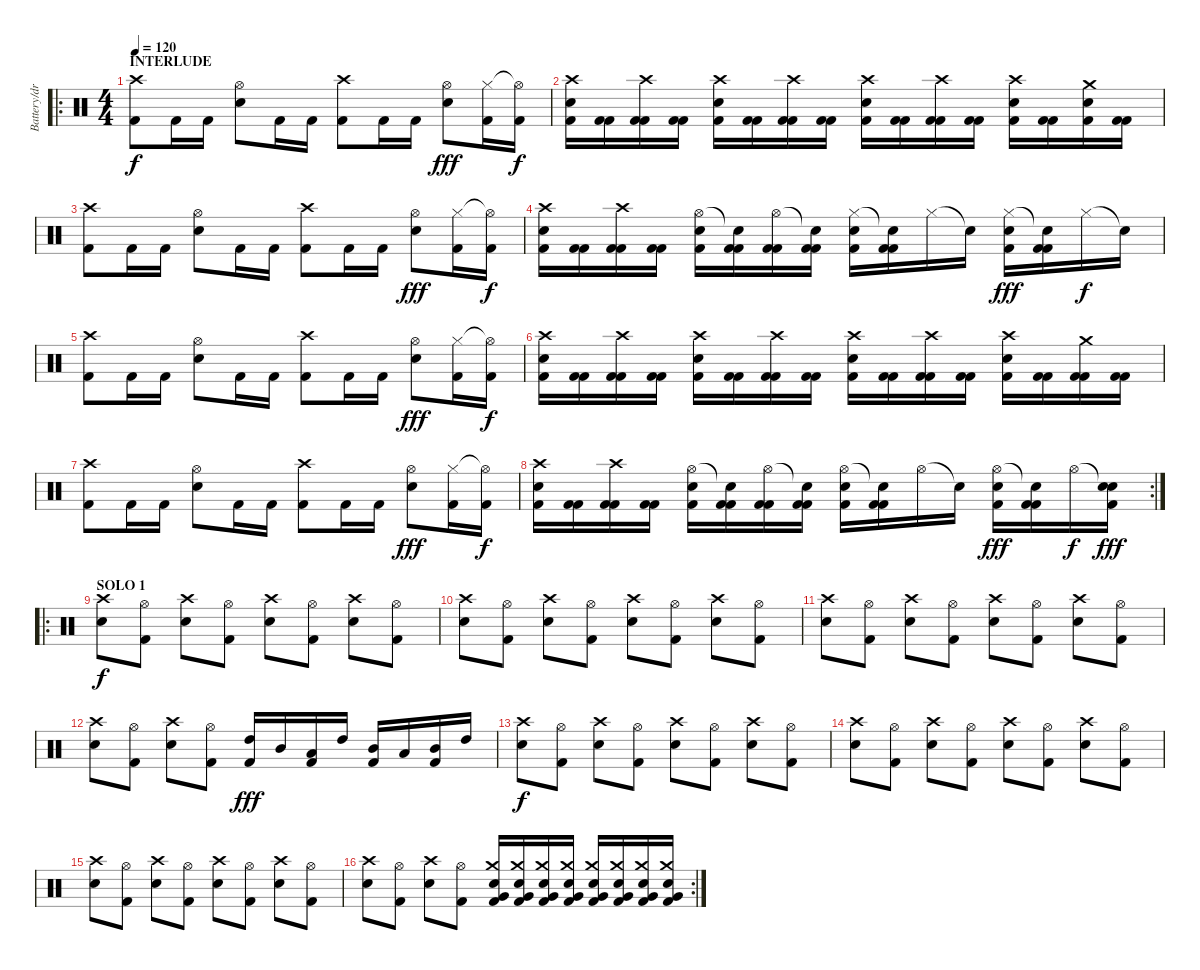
\track ("Battery/drums" "Battery/dr") {instrument percussion}
\staff {score}
\articulation defaults
\ro
\ts (4 4)
\section ("" "INTERLUDE")
\tempo 120
\clef neutral
\ks c
("Crash high (hit)" "Kick (hit) 2").8{dy f} "Kick (hit) 2".16 "Kick (hit) 2".16 ("Hi-Hat (open)" "Electric Snare (hit)").8 "Kick (hit) 2".16 "Kick (hit) 2".16 ("Crash high (hit)" "Kick (hit) 2").8 "Kick (hit) 2".16 "Kick (hit) 2".16 ("Hi-Hat (open)" "Electric Snare (hit)").8{dy fff} ("Hi-Hat (closed)" "Kick (hit) 2").16 ("Hi-Hat (open)"{t} "Kick (hit) 2").16{dy f} |
("Kick (hit) 2" "Crash high (hit)" "Electric Snare (hit)").16 ("Kick (hit) 2" "Kick (hit) 2").16 ("Kick (hit) 2" "Crash high (hit)" "Kick (hit) 2").16 ("Kick (hit) 2" "Kick (hit) 2").16 ("Kick (hit) 2" "Crash high (hit)" "Electric Snare (hit)").16 ("Kick (hit) 2" "Kick (hit) 2").16 ("Kick (hit) 2" "Crash high (hit)" "Kick (hit) 2").16 ("Kick (hit) 2" "Kick (hit) 2").16 ("Kick (hit) 2" "Crash high (hit)" "Electric Snare (hit)").16 ("Kick (hit) 2" "Kick (hit) 2").16 ("Kick (hit) 2" "Crash high (hit)" "Kick (hit) 2").16 ("Kick (hit) 2" "Kick (hit) 2").16 ("Kick (hit) 2" "Crash high (hit)" "Electric Snare (hit)").16 ("Kick (hit) 2" "Kick (hit) 2").16 ("Kick (hit) 2" "Crash medium (hit)" "Electric Snare (hit)").16 ("Kick (hit) 2" "Kick (hit) 2").16 |
("Crash high (hit)" "Kick (hit) 2").8 "Kick (hit) 2".16 "Kick (hit) 2".16 ("Hi-Hat (open)" "Electric Snare (hit)").8 "Kick (hit) 2".16 "Kick (hit) 2".16 ("Crash high (hit)" "Kick (hit) 2").8 "Kick (hit) 2".16 "Kick (hit) 2".16 ("Hi-Hat (open)" "Electric Snare (hit)").8{dy fff} ("Hi-Hat (closed)" "Kick (hit) 2").16 ("Hi-Hat (open)"{t} "Kick (hit) 2").16{dy f} |
("Kick (hit) 2" "Crash high (hit)" "Electric Snare (hit)").16 ("Kick (hit) 2" "Kick (hit) 2").16 ("Kick (hit) 2" "Crash high (hit)" "Kick (hit) 2").16 ("Kick (hit) 2" "Kick (hit) 2").16 ("Kick (hit) 2" "Hi-Hat (open)" "Electric Snare (hit)").16 ("Kick (hit) 2" "Snare (hit)"{t} "Kick (hit) 2").16 ("Kick (hit) 2" "Hi-Hat (open)" "Kick (hit) 2").16 ("Kick (hit) 2" "Snare (hit)"{t} "Kick (hit) 2").16 ("Kick (hit) 2" "Hi-Hat (closed)" "Electric Snare (hit)").16 ("Kick (hit) 2" "Snare (hit)"{t} "Kick (hit) 2").16 "Hi-Hat (closed)".16 "Snare (hit)"{t}.16 ("Kick (hit) 2" "Hi-Hat (closed)" "Electric Snare (hit)").16{dy fff} ("Kick (hit) 2" "Snare (hit)"{t} "Kick (hit) 2").16 "Hi-Hat (closed)".16{dy f} "Snare (hit)"{t}.16 |
("Crash high (hit)" "Kick (hit) 2").8 "Kick (hit) 2".16 "Kick (hit) 2".16 ("Hi-Hat (open)" "Electric Snare (hit)").8 "Kick (hit) 2".16 "Kick (hit) 2".16 ("Crash high (hit)" "Kick (hit) 2").8 "Kick (hit) 2".16 "Kick (hit) 2".16 ("Hi-Hat (open)" "Electric Snare (hit)").8{dy fff} ("Hi-Hat (closed)" "Kick (hit) 2").16 ("Hi-Hat (open)"{t} "Kick (hit) 2").16{dy f} |
("Kick (hit) 2" "Crash high (hit)" "Electric Snare (hit)").16 ("Kick (hit) 2" "Kick (hit) 2").16 ("Kick (hit) 2" "Crash high (hit)" "Kick (hit) 2").16 ("Kick (hit) 2" "Kick (hit) 2").16 ("Kick (hit) 2" "Crash high (hit)" "Electric Snare (hit)").16 ("Kick (hit) 2" "Kick (hit) 2").16 ("Kick (hit) 2" "Crash high (hit)" "Kick (hit) 2").16 ("Kick (hit) 2" "Kick (hit) 2").16 ("Kick (hit) 2" "Crash high (hit)" "Electric Snare (hit)").16 ("Kick (hit) 2" "Kick (hit) 2").16 ("Kick (hit) 2" "Crash high (hit)" "Kick (hit) 2").16 ("Kick (hit) 2" "Kick (hit) 2").16 ("Kick (hit) 2" "Crash high (hit)" "Electric Snare (hit)").16 ("Kick (hit) 2" "Kick (hit) 2").16 ("Kick (hit) 2" "Crash medium (hit)" "Kick (hit) 2").16 ("Kick (hit) 2" "Kick (hit) 2").16 |
("Crash high (hit)" "Kick (hit) 2").8 "Kick (hit) 2".16 "Kick (hit) 2".16 ("Hi-Hat (open)" "Electric Snare (hit)").8 "Kick (hit) 2".16 "Kick (hit) 2".16 ("Crash high (hit)" "Kick (hit) 2").8 "Kick (hit) 2".16 "Kick (hit) 2".16 ("Hi-Hat (open)" "Electric Snare (hit)").8{dy fff} ("Hi-Hat (closed)" "Kick (hit) 2").16 ("Hi-Hat (open)"{t} "Kick (hit) 2").16{dy f} |
\rc 2
("Kick (hit) 2" "Crash high (hit)" "Electric Snare (hit)").16 ("Kick (hit) 2" "Kick (hit) 2").16 ("Kick (hit) 2" "Crash high (hit)" "Kick (hit) 2").16 ("Kick (hit) 2" "Kick (hit) 2").16 ("Kick (hit) 2" "Hi-Hat (open)" "Electric Snare (hit)").16 ("Kick (hit) 2" "Snare (hit)"{t} "Kick (hit) 2").16 ("Kick (hit) 2" "Hi-Hat (open)" "Kick (hit) 2").16 ("Kick (hit) 2" "Snare (hit)"{t} "Kick (hit) 2").16 ("Kick (hit) 2" "Hi-Hat (open)" "Electric Snare (hit)").16 ("Kick (hit) 2" "Snare (hit)"{t} "Kick (hit) 2").16 "Hi-Hat (open)".16 "Snare (hit)"{t}.16 ("Kick (hit) 2" "Hi-Hat (open)" "Electric Snare (hit)").16{dy fff} ("Kick (hit) 2" "Snare (hit)"{t} "Kick (hit) 2").16 "Hi-Hat (open)".16{dy f} ("Snare (hit)"{t} "Kick (hit) 2" "Electric Snare (hit)").16{dy fff} |
\ro
\section ("" "SOLO 1")
("Crash high (hit)" "Electric Snare (hit)").8{dy f volume 13} ("Hi-Hat (open)" "Kick (hit) 2").8 ("Crash high (hit)" "Electric Snare (hit)").8 ("Hi-Hat (open)" "Kick (hit) 2").8 ("Crash high (hit)" "Electric Snare (hit)").8 ("Hi-Hat (open)" "Kick (hit) 2").8 ("Crash high (hit)" "Electric Snare (hit)").8 ("Hi-Hat (open)" "Kick (hit) 2").8 |
("Crash high (hit)" "Electric Snare (hit)").8 ("Hi-Hat (open)" "Kick (hit) 2").8 ("Crash high (hit)" "Electric Snare (hit)").8 ("Hi-Hat (open)" "Kick (hit) 2").8 ("Crash high (hit)" "Electric Snare (hit)").8 ("Hi-Hat (open)" "Kick (hit) 2").8 ("Crash high (hit)" "Electric Snare (hit)").8 ("Hi-Hat (open)" "Kick (hit) 2").8 |
("Crash high (hit)" "Electric Snare (hit)").8 ("Hi-Hat (open)" "Kick (hit) 2").8 ("Crash high (hit)" "Electric Snare (hit)").8 ("Hi-Hat (open)" "Kick (hit) 2").8 ("Crash high (hit)" "Electric Snare (hit)").8 ("Hi-Hat (open)" "Kick (hit) 2").8 ("Crash high (hit)" "Electric Snare (hit)").8 ("Hi-Hat (open)" "Kick (hit) 2").8 |
("Crash high (hit)" "Electric Snare (hit)").8 ("Hi-Hat (open)" "Kick (hit) 2").8 ("Crash high (hit)" "Electric Snare (hit)").8 ("Hi-Hat (open)" "Kick (hit) 2").8 ("High Tom (hit)" "Kick (hit) 2").16{dy fff} "Mid Tom (hit)".16 ("Low Tom (hit)" "Kick (hit) 2").16 "High Tom (hit)".16 ("Mid Tom (hit)" "Kick (hit) 2").16 "Low Tom (hit)".16 ("Mid Tom (hit)" "Kick (hit) 2").16 "High Tom (hit)".16 |
("Crash high (hit)" "Electric Snare (hit)").8{dy f} ("Hi-Hat (open)" "Kick (hit) 2").8 ("Crash high (hit)" "Electric Snare (hit)").8 ("Hi-Hat (open)" "Kick (hit) 2").8 ("Crash high (hit)" "Electric Snare (hit)").8 ("Hi-Hat (open)" "Kick (hit) 2").8 ("Crash high (hit)" "Electric Snare (hit)").8 ("Hi-Hat (open)" "Kick (hit) 2").8 |
("Crash high (hit)" "Electric Snare (hit)").8 ("Hi-Hat (open)" "Kick (hit) 2").8 ("Crash high (hit)" "Electric Snare (hit)").8 ("Hi-Hat (open)" "Kick (hit) 2").8 ("Crash high (hit)" "Electric Snare (hit)").8 ("Hi-Hat (open)" "Kick (hit) 2").8 ("Crash high (hit)" "Electric Snare (hit)").8 ("Hi-Hat (open)" "Kick (hit) 2").8 |
("Crash high (hit)" "Electric Snare (hit)").8 ("Hi-Hat (open)" "Kick (hit) 2").8 ("Crash high (hit)" "Electric Snare (hit)").8 ("Hi-Hat (open)" "Kick (hit) 2").8 ("Crash high (hit)" "Electric Snare (hit)").8 ("Hi-Hat (open)" "Kick (hit) 2").8 ("Crash high (hit)" "Electric Snare (hit)").8 ("Hi-Hat (open)" "Kick (hit) 2").8 |
\rc 2
("Crash high (hit)" "Electric Snare (hit)").8 ("Hi-Hat (open)" "Kick (hit) 2").8 ("Crash high (hit)" "Electric Snare (hit)").8 ("Hi-Hat (open)" "Kick (hit) 2").8 ("Crash medium (hit)" "Very Low Tom (hit)" "Electric Snare (hit)" "Kick (hit) 2").16 ("Crash medium (hit)" "Very Low Tom (hit)" "Electric Snare (hit)" "Kick (hit) 2").16 ("Crash medium (hit)" "Very Low Tom (hit)" "Electric Snare (hit)" "Kick (hit) 2").16 ("Crash medium (hit)" "Very Low Tom (hit)" "Electric Snare (hit)" "Kick (hit) 2").16 ("Crash medium (hit)" "Very Low Tom (hit)" "Electric Snare (hit)" "Kick (hit) 2").16 ("Crash medium (hit)" "Very Low Tom (hit)" "Electric Snare (hit)" "Kick (hit) 2").16 ("Crash medium (hit)" "Very Low Tom (hit)" "Electric Snare (hit)" "Kick (hit) 2").16 ("Crash medium (hit)" "Very Low Tom (hit)" "Electric Snare (hit)" "Kick (hit) 2").16
